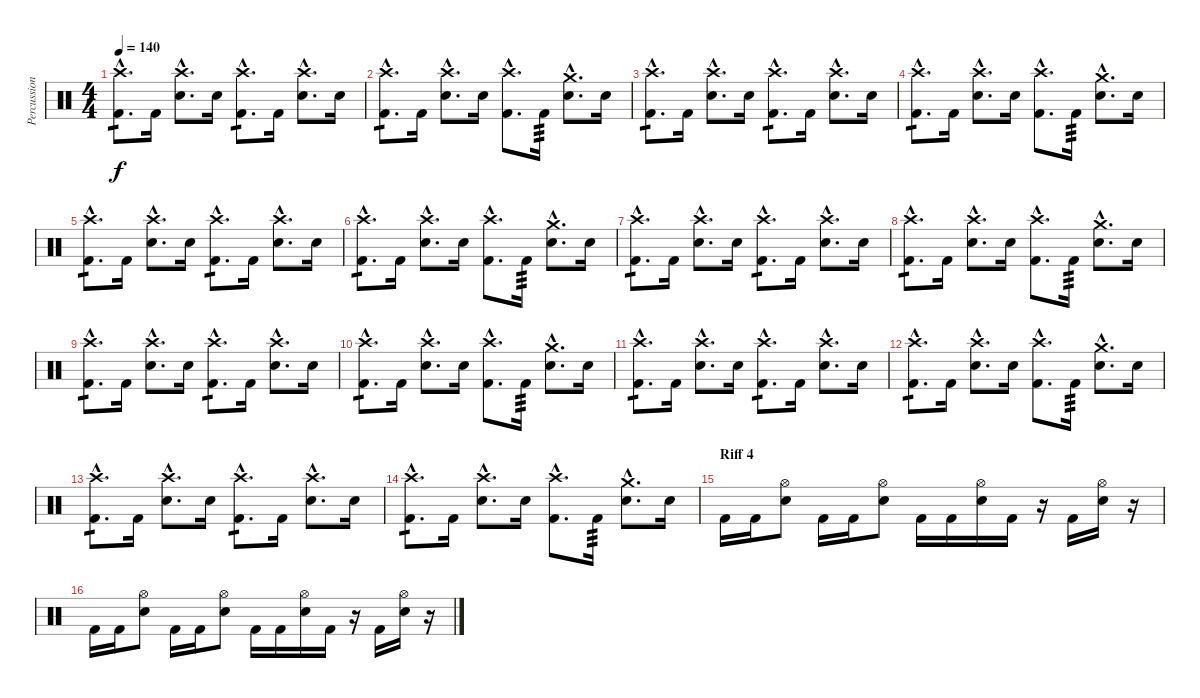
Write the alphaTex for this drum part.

\track ("Percussions" "Percussion") {instrument percussion}
\staff {score}
\articulation defaults
\ts (4 4)
\tempo 140
\clef neutral
\ks c
("Crash high (hit)"{hac} "Kick (hit) 2"{hac}).8{d tp 1 dy f} "Kick (hit) 2".16{volume 16} ("Crash high (hit)"{hac} "Snare (hit) 2"{hac}).8{d} "Snare (hit) 2".16 ("Crash high (hit)"{hac} "Kick (hit) 2"{hac}).8{d tp 1} "Kick (hit) 2".16 ("Crash high (hit)"{hac} "Snare (hit) 2"{hac}).8{d} "Snare (hit) 2".16 |
("Crash high (hit)"{hac} "Kick (hit) 2"{hac}).8{d tp 1} "Kick (hit) 2".16 ("Crash high (hit)"{hac} "Snare (hit) 2"{hac}).8{d} "Snare (hit) 2".16 ("Crash high (hit)"{hac} "Kick (hit) 2").8{d} "Kick (hit) 2".16{tp 3} ("Crash medium (hit)"{hac} "Snare (hit) 2"{hac}).8{d} "Snare (hit) 2".16 |
("Crash high (hit)"{hac} "Kick (hit) 2"{hac}).8{d tp 1} "Kick (hit) 2".16{volume 16} ("Crash high (hit)"{hac} "Snare (hit) 2"{hac}).8{d} "Snare (hit) 2".16 ("Crash high (hit)"{hac} "Kick (hit) 2"{hac}).8{d tp 1} "Kick (hit) 2".16 ("Crash high (hit)"{hac} "Snare (hit) 2"{hac}).8{d} "Snare (hit) 2".16 |
("Crash high (hit)"{hac} "Kick (hit) 2"{hac}).8{d tp 1} "Kick (hit) 2".16 ("Crash high (hit)"{hac} "Snare (hit) 2"{hac}).8{d} "Snare (hit) 2".16 ("Crash high (hit)"{hac} "Kick (hit) 2").8{d} "Kick (hit) 2".16{tp 3} ("Crash medium (hit)"{hac} "Snare (hit) 2"{hac}).8{d} "Snare (hit) 2".16 |
("Crash high (hit)"{hac} "Kick (hit) 2"{hac}).8{d tp 1} "Kick (hit) 2".16{volume 16} ("Crash high (hit)"{hac} "Snare (hit) 2"{hac}).8{d} "Snare (hit) 2".16 ("Crash high (hit)"{hac} "Kick (hit) 2"{hac}).8{d tp 1} "Kick (hit) 2".16 ("Crash high (hit)"{hac} "Snare (hit) 2"{hac}).8{d} "Snare (hit) 2".16 |
("Crash high (hit)"{hac} "Kick (hit) 2"{hac}).8{d tp 1} "Kick (hit) 2".16 ("Crash high (hit)"{hac} "Snare (hit) 2"{hac}).8{d} "Snare (hit) 2".16 ("Crash high (hit)"{hac} "Kick (hit) 2").8{d} "Kick (hit) 2".16{tp 3} ("Crash medium (hit)"{hac} "Snare (hit) 2"{hac}).8{d} "Snare (hit) 2".16 |
("Crash high (hit)"{hac} "Kick (hit) 2"{hac}).8{d tp 1} "Kick (hit) 2".16{volume 16} ("Crash high (hit)"{hac} "Snare (hit) 2"{hac}).8{d} "Snare (hit) 2".16 ("Crash high (hit)"{hac} "Kick (hit) 2"{hac}).8{d tp 1} "Kick (hit) 2".16 ("Crash high (hit)"{hac} "Snare (hit) 2"{hac}).8{d} "Snare (hit) 2".16 |
("Crash high (hit)"{hac} "Kick (hit) 2"{hac}).8{d tp 1} "Kick (hit) 2".16 ("Crash high (hit)"{hac} "Snare (hit) 2"{hac}).8{d} "Snare (hit) 2".16 ("Crash high (hit)"{hac} "Kick (hit) 2").8{d} "Kick (hit) 2".16{tp 3} ("Crash medium (hit)"{hac} "Snare (hit) 2"{hac}).8{d} "Snare (hit) 2".16 |
("Crash high (hit)"{hac} "Kick (hit) 2"{hac}).8{d tp 1} "Kick (hit) 2".16{volume 16} ("Crash high (hit)"{hac} "Snare (hit) 2"{hac}).8{d} "Snare (hit) 2".16 ("Crash high (hit)"{hac} "Kick (hit) 2"{hac}).8{d tp 1} "Kick (hit) 2".16 ("Crash high (hit)"{hac} "Snare (hit) 2"{hac}).8{d} "Snare (hit) 2".16 |
("Crash high (hit)"{hac} "Kick (hit) 2"{hac}).8{d tp 1} "Kick (hit) 2".16 ("Crash high (hit)"{hac} "Snare (hit) 2"{hac}).8{d} "Snare (hit) 2".16 ("Crash high (hit)"{hac} "Kick (hit) 2").8{d} "Kick (hit) 2".16{tp 3} ("Crash medium (hit)"{hac} "Snare (hit) 2"{hac}).8{d} "Snare (hit) 2".16 |
("Crash high (hit)"{hac} "Kick (hit) 2"{hac}).8{d tp 1} "Kick (hit) 2".16{volume 16} ("Crash high (hit)"{hac} "Snare (hit) 2"{hac}).8{d} "Snare (hit) 2".16 ("Crash high (hit)"{hac} "Kick (hit) 2"{hac}).8{d tp 1} "Kick (hit) 2".16 ("Crash high (hit)"{hac} "Snare (hit) 2"{hac}).8{d} "Snare (hit) 2".16 |
("Crash high (hit)"{hac} "Kick (hit) 2"{hac}).8{d tp 1} "Kick (hit) 2".16 ("Crash high (hit)"{hac} "Snare (hit) 2"{hac}).8{d} "Snare (hit) 2".16 ("Crash high (hit)"{hac} "Kick (hit) 2").8{d} "Kick (hit) 2".16{tp 3} ("Crash medium (hit)"{hac} "Snare (hit) 2"{hac}).8{d} "Snare (hit) 2".16 |
("Crash high (hit)"{hac} "Kick (hit) 2"{hac}).8{d tp 1} "Kick (hit) 2".16{volume 16} ("Crash high (hit)"{hac} "Snare (hit) 2"{hac}).8{d} "Snare (hit) 2".16 ("Crash high (hit)"{hac} "Kick (hit) 2"{hac}).8{d tp 1} "Kick (hit) 2".16 ("Crash high (hit)"{hac} "Snare (hit) 2"{hac}).8{d} "Snare (hit) 2".16 |
("Crash high (hit)"{hac} "Kick (hit) 2"{hac}).8{d tp 1} "Kick (hit) 2".16 ("Crash high (hit)"{hac} "Snare (hit) 2"{hac}).8{d} "Snare (hit) 2".16 ("Crash high (hit)"{hac} "Kick (hit) 2").8{d} "Kick (hit) 2".16{tp 3} ("Crash medium (hit)"{hac} "Snare (hit) 2"{hac}).8{d} "Snare (hit) 2".16 |
\section ("" "Riff 4")
"Kick (hit) 2".16 "Kick (hit) 2".16 ("Hi-Hat (open)" "Snare (hit) 2").8 "Kick (hit) 2".16 "Kick (hit) 2".16 ("Hi-Hat (open)" "Snare (hit) 2").8 "Kick (hit) 2".16 "Kick (hit) 2".16 ("Hi-Hat (open)" "Snare (hit) 2").16 "Kick (hit) 2".16 r.16 "Kick (hit) 2".16 ("Hi-Hat (open)" "Snare (hit) 2").16 r.16 |
"Kick (hit) 2".16 "Kick (hit) 2".16 ("Hi-Hat (open)" "Snare (hit) 2").8 "Kick (hit) 2".16 "Kick (hit) 2".16 ("Hi-Hat (open)" "Snare (hit) 2").8 "Kick (hit) 2".16 "Kick (hit) 2".16 ("Hi-Hat (open)" "Snare (hit) 2").16 "Kick (hit) 2".16 r.16 "Kick (hit) 2".16 ("Hi-Hat (open)" "Snare (hit) 2").16 r.16
